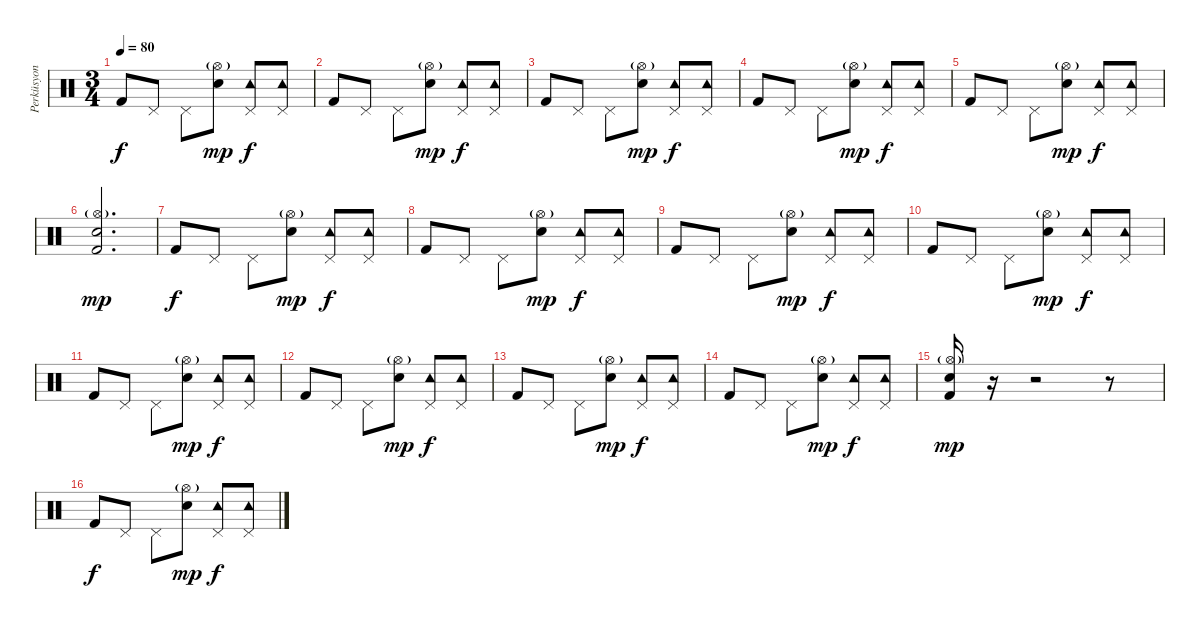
\track ("Perküsyon" "Perküsyon") {instrument percussion}
\staff {score}
\articulation defaults
\ts (3 4)
\tempo 80
\clef neutral
\ks c "Kick (hit) 2".8{dy f} "Pedal Hi-Hat (hit)".8 "Pedal Hi-Hat (hit)".8
("Hi-Hat (open)"{g} "Snare (hit) 2").8{dy mp} ("Tambourine (hit)" "Pedal Hi-Hat (hit)").8{dy f} ("Tambourine (hit)" "Pedal Hi-Hat (hit)").8 |
"Kick (hit) 2".8 "Pedal Hi-Hat (hit)".8 "Pedal Hi-Hat (hit)".8 ("Hi-Hat (open)"{g} "Snare (hit) 2").8{dy mp} ("Tambourine (hit)" "Pedal Hi-Hat (hit)").8{dy f} ("Tambourine (hit)" "Pedal Hi-Hat (hit)").8 |
"Kick (hit) 2".8 "Pedal Hi-Hat (hit)".8 "Pedal Hi-Hat (hit)".8 ("Hi-Hat (open)"{g} "Snare (hit) 2").8{dy mp} ("Tambourine (hit)" "Pedal Hi-Hat (hit)").8{dy f} ("Tambourine (hit)" "Pedal Hi-Hat (hit)").8 |
"Kick (hit) 2".8 "Pedal Hi-Hat (hit)".8 "Pedal Hi-Hat (hit)".8 ("Hi-Hat (open)"{g} "Snare (hit) 2").8{dy mp} ("Tambourine (hit)" "Pedal Hi-Hat (hit)").8{dy f} ("Tambourine (hit)" "Pedal Hi-Hat (hit)").8 |
"Kick (hit) 2".8 "Pedal Hi-Hat (hit)".8 "Pedal Hi-Hat (hit)".8 ("Hi-Hat (open)"{g} "Snare (hit) 2").8{dy mp} ("Tambourine (hit)" "Pedal Hi-Hat (hit)").8{dy f} ("Tambourine (hit)" "Pedal Hi-Hat (hit)").8 |
("Hi-Hat (open)"{g} "Snare (hit) 2" "Kick (hit) 2").2{d dy mp} |
"Kick (hit) 2".8{dy f} "Pedal Hi-Hat (hit)".8 "Pedal Hi-Hat (hit)".8 ("Hi-Hat (open)"{g} "Snare (hit) 2").8{dy mp} ("Tambourine (hit)" "Pedal Hi-Hat (hit)").8{dy f} ("Tambourine (hit)" "Pedal Hi-Hat (hit)").8 |
"Kick (hit) 2".8 "Pedal Hi-Hat (hit)".8 "Pedal Hi-Hat (hit)".8 ("Hi-Hat (open)"{g} "Snare (hit) 2").8{dy mp} ("Tambourine (hit)" "Pedal Hi-Hat (hit)").8{dy f} ("Tambourine (hit)" "Pedal Hi-Hat (hit)").8 |
"Kick (hit) 2".8 "Pedal Hi-Hat (hit)".8 "Pedal Hi-Hat (hit)".8 ("Hi-Hat (open)"{g} "Snare (hit) 2").8{dy mp} ("Tambourine (hit)" "Pedal Hi-Hat (hit)").8{dy f} ("Tambourine (hit)" "Pedal Hi-Hat (hit)").8 |
"Kick (hit) 2".8 "Pedal Hi-Hat (hit)".8 "Pedal Hi-Hat (hit)".8 ("Hi-Hat (open)"{g} "Snare (hit) 2").8{dy mp} ("Tambourine (hit)" "Pedal Hi-Hat (hit)").8{dy f} ("Tambourine (hit)" "Pedal Hi-Hat (hit)").8 |
"Kick (hit) 2".8 "Pedal Hi-Hat (hit)".8 "Pedal Hi-Hat (hit)".8 ("Hi-Hat (open)"{g} "Snare (hit) 2").8{dy mp} ("Tambourine (hit)" "Pedal Hi-Hat (hit)").8{dy f} ("Tambourine (hit)" "Pedal Hi-Hat (hit)").8 |
"Kick (hit) 2".8 "Pedal Hi-Hat (hit)".8 "Pedal Hi-Hat (hit)".8 ("Hi-Hat (open)"{g} "Snare (hit) 2").8{dy mp} ("Tambourine (hit)" "Pedal Hi-Hat (hit)").8{dy f} ("Tambourine (hit)" "Pedal Hi-Hat (hit)").8 |
"Kick (hit) 2".8 "Pedal Hi-Hat (hit)".8 "Pedal Hi-Hat (hit)".8 ("Hi-Hat (open)"{g} "Snare (hit) 2").8{dy mp} ("Tambourine (hit)" "Pedal Hi-Hat (hit)").8{dy f} ("Tambourine (hit)" "Pedal Hi-Hat (hit)").8 |
"Kick (hit) 2".8 "Pedal Hi-Hat (hit)".8 "Pedal Hi-Hat (hit)".8 ("Hi-Hat (open)"{g} "Snare (hit) 2").8{dy mp} ("Tambourine (hit)" "Pedal Hi-Hat (hit)").8{dy f} ("Tambourine (hit)" "Pedal Hi-Hat (hit)").8 |
("Hi-Hat (open)"{g} "Snare (hit) 2" "Kick (hit) 2").16{dy mp} r.16 r.2 r.8 |
"Kick (hit) 2".8{dy f} "Pedal Hi-Hat (hit)".8 "Pedal Hi-Hat (hit)".8 ("Hi-Hat (open)"{g} "Snare (hit) 2").8{dy mp} ("Tambourine (hit)" "Pedal Hi-Hat (hit)").8{dy f} ("Tambourine (hit)" "Pedal Hi-Hat (hit)").8
